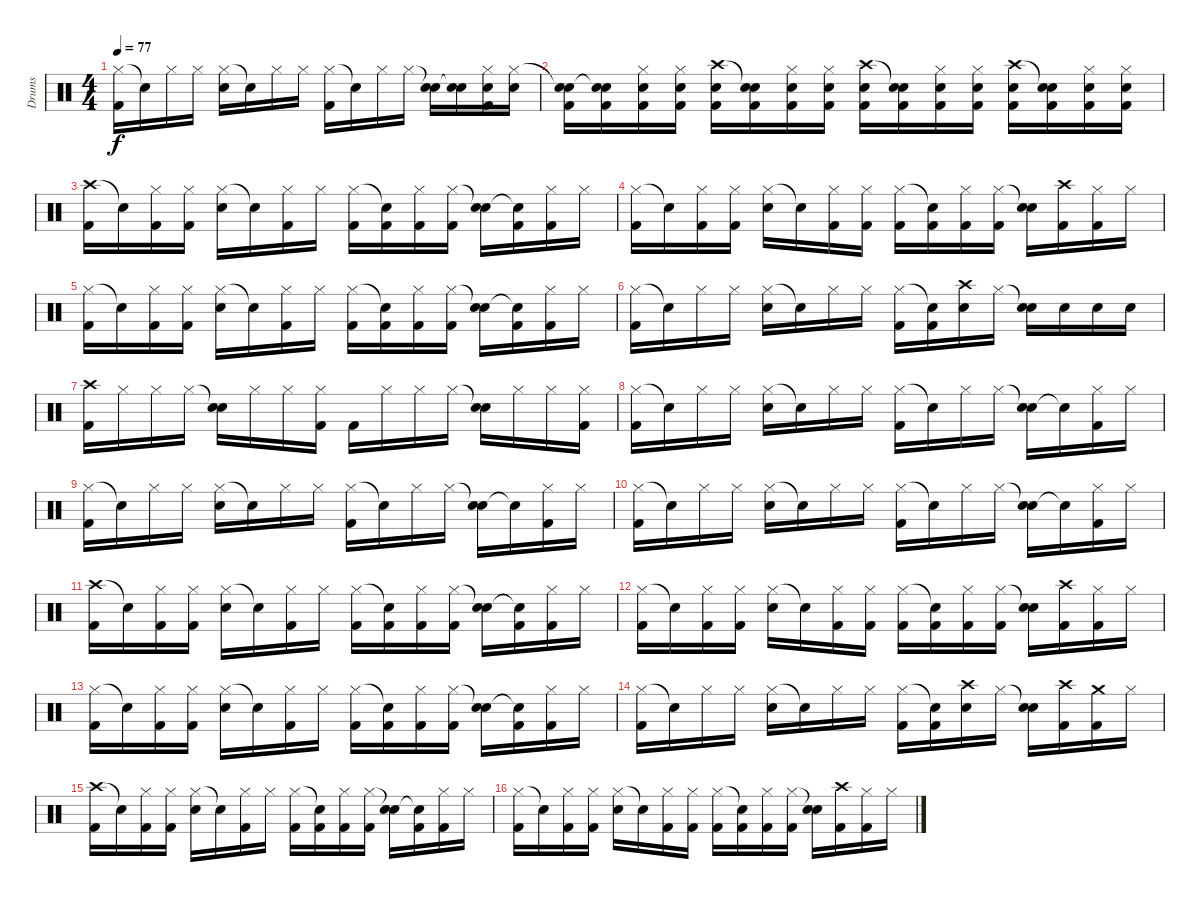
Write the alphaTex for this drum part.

\track ("Drums" "Drums") {instrument percussion}
\staff {score}
\articulation defaults
\ts (4 4)
\tempo 77
\clef neutral
\ks c
("Hi-Hat (closed)" "Kick (hit) 2").16{dy f} "Snare (hit)"{t}.16 "Hi-Hat (closed)".16 "Hi-Hat (closed)".16 ("Hi-Hat (closed)" "Electric Snare (hit)").16 "Snare (hit)"{t}.16 "Hi-Hat (closed)".16 "Hi-Hat (closed)".16 ("Hi-Hat (closed)" "Kick (hit) 2").16 "Snare (hit)"{t}.16 "Hi-Hat (closed)".16 "Hi-Hat (closed)".16 ("Snare (hit)"{t} "Electric Snare (hit)").16 ("Snare (hit)"{t} "Electric Snare (hit)").16 ("Hi-Hat (closed)" "Electric Snare (hit)" "Kick (hit) 2").16 ("Hi-Hat (closed)" "Electric Snare (hit)").16 |
("Snare (hit)"{t} "Electric Snare (hit)" "Kick (hit) 2").16 ("Snare (hit)"{t} "Electric Snare (hit)" "Kick (hit) 2").16 ("Hi-Hat (closed)" "Electric Snare (hit)" "Kick (hit) 2").16 ("Hi-Hat (closed)" "Electric Snare (hit)" "Kick (hit) 2").16 ("Crash high (hit)" "Electric Snare (hit)" "Kick (hit) 2").16 ("Snare (hit)"{t} "Electric Snare (hit)" "Kick (hit) 2").16 ("Hi-Hat (closed)" "Electric Snare (hit)" "Kick (hit) 2").16 ("Hi-Hat (closed)" "Electric Snare (hit)" "Kick (hit) 2").16 ("Crash high (hit)" "Electric Snare (hit)" "Kick (hit) 2").16 ("Snare (hit)"{t} "Electric Snare (hit)" "Kick (hit) 2").16 ("Hi-Hat (closed)" "Electric Snare (hit)" "Kick (hit) 2").16 ("Hi-Hat (closed)" "Electric Snare (hit)" "Kick (hit) 2").16 ("Crash high (hit)" "Electric Snare (hit)" "Kick (hit) 2").16 ("Snare (hit)"{t} "Electric Snare (hit)" "Kick (hit) 2").16 ("Hi-Hat (closed)" "Electric Snare (hit)" "Kick (hit) 2").16 ("Hi-Hat (closed)" "Electric Snare (hit)" "Kick (hit) 2").16 |
("Crash high (hit)" "Kick (hit) 2").16 "Snare (hit)"{t}.16 ("Hi-Hat (closed)" "Kick (hit) 2").16 ("Hi-Hat (closed)" "Kick (hit) 2").16 ("Hi-Hat (closed)" "Electric Snare (hit)").16 "Snare (hit)"{t}.16 ("Hi-Hat (closed)" "Kick (hit) 2").16 "Hi-Hat (closed)".16 ("Hi-Hat (closed)" "Kick (hit) 2").16 ("Snare (hit)"{t} "Kick (hit) 2").16 ("Hi-Hat (closed)" "Kick (hit) 2").16 ("Hi-Hat (closed)" "Kick (hit) 2").16 ("Snare (hit)"{t} "Electric Snare (hit)").16 ("Snare (hit)"{t} "Kick (hit) 2").16 ("Hi-Hat (closed)" "Kick (hit) 2").16 "Hi-Hat (closed)".16 |
("Hi-Hat (closed)" "Kick (hit) 2").16 "Snare (hit)"{t}.16 ("Hi-Hat (closed)" "Kick (hit) 2").16 ("Hi-Hat (closed)" "Kick (hit) 2").16 ("Hi-Hat (closed)" "Electric Snare (hit)").16 "Snare (hit)"{t}.16 ("Hi-Hat (closed)" "Kick (hit) 2").16 ("Hi-Hat (closed)" "Kick (hit) 2").16 ("Hi-Hat (closed)" "Kick (hit) 2").16 ("Snare (hit)"{t} "Kick (hit) 2").16 ("Hi-Hat (closed)" "Kick (hit) 2").16 ("Hi-Hat (closed)" "Kick (hit) 2").16 ("Snare (hit)"{t} "Electric Snare (hit)").16 ("Crash high (hit)" "Kick (hit) 2").16 ("Hi-Hat (closed)" "Kick (hit) 2").16 "Hi-Hat (closed)".16 |
("Hi-Hat (closed)" "Kick (hit) 2").16 "Snare (hit)"{t}.16 ("Hi-Hat (closed)" "Kick (hit) 2").16 ("Hi-Hat (closed)" "Kick (hit) 2").16 ("Hi-Hat (closed)" "Electric Snare (hit)").16 "Snare (hit)"{t}.16 ("Hi-Hat (closed)" "Kick (hit) 2").16 "Hi-Hat (closed)".16 ("Hi-Hat (closed)" "Kick (hit) 2").16 ("Snare (hit)"{t} "Kick (hit) 2").16 ("Hi-Hat (closed)" "Kick (hit) 2").16 ("Hi-Hat (closed)" "Kick (hit) 2").16 ("Snare (hit)"{t} "Electric Snare (hit)").16 ("Snare (hit)"{t} "Kick (hit) 2").16 ("Hi-Hat (closed)" "Kick (hit) 2").16 "Hi-Hat (closed)".16 |
("Hi-Hat (closed)" "Kick (hit) 2").16 "Snare (hit)"{t}.16 "Hi-Hat (closed)".16 "Hi-Hat (closed)".16 ("Hi-Hat (closed)" "Electric Snare (hit)").16 "Snare (hit)"{t}.16 "Hi-Hat (closed)".16 "Hi-Hat (closed)".16 ("Hi-Hat (closed)" "Kick (hit) 2").16 ("Snare (hit)"{t} "Kick (hit) 2").16 ("Crash high (hit)" "Electric Snare (hit)").16 "Hi-Hat (closed)".16 ("Snare (hit)"{t} "Electric Snare (hit)").16 "Electric Snare (hit)".16 "Electric Snare (hit)".16 "Electric Snare (hit)".16 |
("Crash high (hit)" "Kick (hit) 2").16 "Hi-Hat (closed)".16 "Hi-Hat (closed)".16 "Hi-Hat (closed)".16 ("Snare (hit)"{t} "Electric Snare (hit)").16 "Hi-Hat (closed)".16 "Hi-Hat (closed)".16 ("Hi-Hat (closed)" "Kick (hit) 2").16 "Kick (hit) 2".16 "Hi-Hat (closed)".16 "Hi-Hat (closed)".16 "Hi-Hat (closed)".16 ("Snare (hit)"{t} "Electric Snare (hit)").16 "Hi-Hat (closed)".16 "Hi-Hat (closed)".16 ("Hi-Hat (closed)" "Kick (hit) 2").16 |
("Hi-Hat (closed)" "Kick (hit) 2").16 "Snare (hit)"{t}.16 "Hi-Hat (closed)".16 "Hi-Hat (closed)".16 ("Hi-Hat (closed)" "Electric Snare (hit)").16 "Snare (hit)"{t}.16 "Hi-Hat (closed)".16 "Hi-Hat (closed)".16 ("Hi-Hat (closed)" "Kick (hit) 2").16 "Snare (hit)"{t}.16 "Hi-Hat (closed)".16 "Hi-Hat (closed)".16 ("Snare (hit)"{t} "Electric Snare (hit)").16 "Snare (hit)"{t}.16 ("Hi-Hat (closed)" "Kick (hit) 2").16 "Hi-Hat (closed)".16 |
("Hi-Hat (closed)" "Kick (hit) 2").16 "Snare (hit)"{t}.16 "Hi-Hat (closed)".16 "Hi-Hat (closed)".16 ("Hi-Hat (closed)" "Electric Snare (hit)").16 "Snare (hit)"{t}.16 "Hi-Hat (closed)".16 "Hi-Hat (closed)".16 ("Hi-Hat (closed)" "Kick (hit) 2").16 "Snare (hit)"{t}.16 "Hi-Hat (closed)".16 "Hi-Hat (closed)".16 ("Snare (hit)"{t} "Electric Snare (hit)").16 "Snare (hit)"{t}.16 ("Hi-Hat (closed)" "Kick (hit) 2").16 "Hi-Hat (closed)".16 |
("Hi-Hat (closed)" "Kick (hit) 2").16 "Snare (hit)"{t}.16 "Hi-Hat (closed)".16 "Hi-Hat (closed)".16 ("Hi-Hat (closed)" "Electric Snare (hit)").16 "Snare (hit)"{t}.16 "Hi-Hat (closed)".16 "Hi-Hat (closed)".16 ("Hi-Hat (closed)" "Kick (hit) 2").16 "Snare (hit)"{t}.16 "Hi-Hat (closed)".16 "Hi-Hat (closed)".16 ("Snare (hit)"{t} "Electric Snare (hit)").16 "Snare (hit)"{t}.16 ("Hi-Hat (closed)" "Kick (hit) 2").16 "Hi-Hat (closed)".16 |
("Crash high (hit)" "Kick (hit) 2").16 "Snare (hit)"{t}.16 ("Hi-Hat (closed)" "Kick (hit) 2").16 ("Hi-Hat (closed)" "Kick (hit) 2").16 ("Hi-Hat (closed)" "Electric Snare (hit)").16 "Snare (hit)"{t}.16 ("Hi-Hat (closed)" "Kick (hit) 2").16 "Hi-Hat (closed)".16 ("Hi-Hat (closed)" "Kick (hit) 2").16 ("Snare (hit)"{t} "Kick (hit) 2").16 ("Hi-Hat (closed)" "Kick (hit) 2").16 ("Hi-Hat (closed)" "Kick (hit) 2").16 ("Snare (hit)"{t} "Electric Snare (hit)").16 ("Snare (hit)"{t} "Kick (hit) 2").16 ("Hi-Hat (closed)" "Kick (hit) 2").16 "Hi-Hat (closed)".16 |
("Hi-Hat (closed)" "Kick (hit) 2").16 "Snare (hit)"{t}.16 ("Hi-Hat (closed)" "Kick (hit) 2").16 ("Hi-Hat (closed)" "Kick (hit) 2").16 ("Hi-Hat (closed)" "Electric Snare (hit)").16 "Snare (hit)"{t}.16 ("Hi-Hat (closed)" "Kick (hit) 2").16 ("Hi-Hat (closed)" "Kick (hit) 2").16 ("Hi-Hat (closed)" "Kick (hit) 2").16 ("Snare (hit)"{t} "Kick (hit) 2").16 ("Hi-Hat (closed)" "Kick (hit) 2").16 ("Hi-Hat (closed)" "Kick (hit) 2").16 ("Snare (hit)"{t} "Electric Snare (hit)").16 ("Crash high (hit)" "Kick (hit) 2").16 ("Hi-Hat (closed)" "Kick (hit) 2").16 "Hi-Hat (closed)".16 |
("Hi-Hat (closed)" "Kick (hit) 2").16 "Snare (hit)"{t}.16 ("Hi-Hat (closed)" "Kick (hit) 2").16 ("Hi-Hat (closed)" "Kick (hit) 2").16 ("Hi-Hat (closed)" "Electric Snare (hit)").16 "Snare (hit)"{t}.16 ("Hi-Hat (closed)" "Kick (hit) 2").16 "Hi-Hat (closed)".16 ("Hi-Hat (closed)" "Kick (hit) 2").16 ("Snare (hit)"{t} "Kick (hit) 2").16 ("Hi-Hat (closed)" "Kick (hit) 2").16 ("Hi-Hat (closed)" "Kick (hit) 2").16 ("Snare (hit)"{t} "Electric Snare (hit)").16 ("Snare (hit)"{t} "Kick (hit) 2").16 ("Hi-Hat (closed)" "Kick (hit) 2").16 "Hi-Hat (closed)".16 |
("Hi-Hat (closed)" "Kick (hit) 2").16 "Snare (hit)"{t}.16 "Hi-Hat (closed)".16 "Hi-Hat (closed)".16 ("Hi-Hat (closed)" "Electric Snare (hit)").16 "Snare (hit)"{t}.16 "Hi-Hat (closed)".16 "Hi-Hat (closed)".16 ("Hi-Hat (closed)" "Kick (hit) 2").16 ("Snare (hit)"{t} "Kick (hit) 2").16 ("Crash high (hit)" "Electric Snare (hit)").16 "Hi-Hat (closed)".16 ("Snare (hit)"{t} "Electric Snare (hit)").16 ("Crash high (hit)" "Kick (hit) 2").16 ("Crash medium (hit)" "Kick (hit) 2").16 "Hi-Hat (closed)".16 |
("Crash high (hit)" "Kick (hit) 2").16 "Snare (hit)"{t}.16 ("Hi-Hat (closed)" "Kick (hit) 2").16 ("Hi-Hat (closed)" "Kick (hit) 2").16 ("Hi-Hat (closed)" "Electric Snare (hit)").16 "Snare (hit)"{t}.16 ("Hi-Hat (closed)" "Kick (hit) 2").16 "Hi-Hat (closed)".16 ("Hi-Hat (closed)" "Kick (hit) 2").16 ("Snare (hit)"{t} "Kick (hit) 2").16 ("Hi-Hat (closed)" "Kick (hit) 2").16 ("Hi-Hat (closed)" "Kick (hit) 2").16 ("Snare (hit)"{t} "Electric Snare (hit)").16 ("Snare (hit)"{t} "Kick (hit) 2").16 ("Hi-Hat (closed)" "Kick (hit) 2").16 "Hi-Hat (closed)".16 |
("Hi-Hat (closed)" "Kick (hit) 2").16 "Snare (hit)"{t}.16 ("Hi-Hat (closed)" "Kick (hit) 2").16 ("Hi-Hat (closed)" "Kick (hit) 2").16 ("Hi-Hat (closed)" "Electric Snare (hit)").16 "Snare (hit)"{t}.16 ("Hi-Hat (closed)" "Kick (hit) 2").16 ("Hi-Hat (closed)" "Kick (hit) 2").16 ("Hi-Hat (closed)" "Kick (hit) 2").16 ("Snare (hit)"{t} "Kick (hit) 2").16 ("Hi-Hat (closed)" "Kick (hit) 2").16 ("Hi-Hat (closed)" "Kick (hit) 2").16 ("Snare (hit)"{t} "Electric Snare (hit)").16 ("Crash high (hit)" "Kick (hit) 2").16 ("Hi-Hat (closed)" "Kick (hit) 2").16 "Hi-Hat (closed)".16
